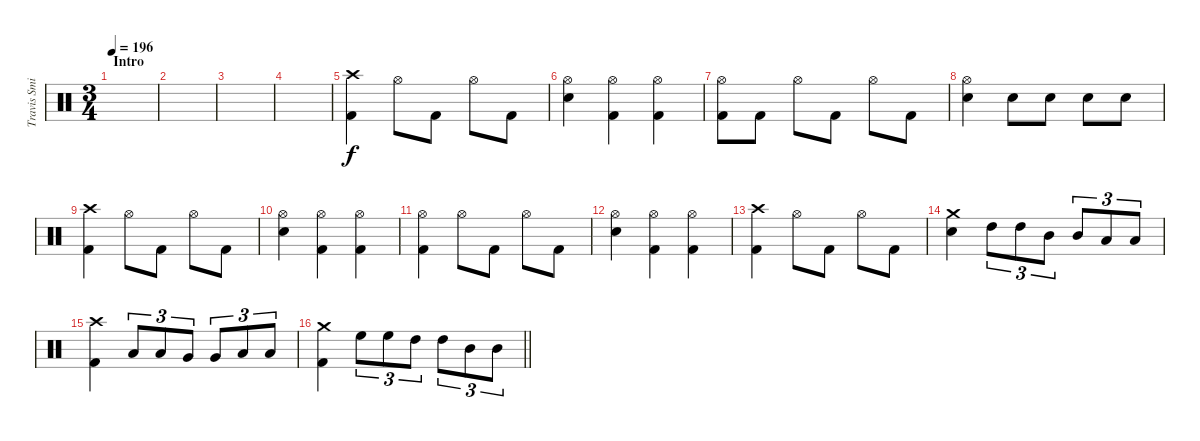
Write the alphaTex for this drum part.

\track ("Travis Smith" "Travis Smi") {instrument percussion}
\staff {score}
\articulation defaults
\ts (3 4)
\section ("" "Intro")
\tempo 196
\clef neutral
\ks c
|
|
|
|
("Crash high (hit)" "Kick (hit) 2").4 "Hi-Hat (open)".8 "Kick (hit) 2".8 "Hi-Hat (open)".8 "Kick (hit) 2".8 |
("Hi-Hat (open)" "Electric Snare (hit)").4 ("Hi-Hat (open)" "Kick (hit) 2").4 ("Hi-Hat (open)" "Kick (hit) 2").4 |
("Hi-Hat (open)" "Kick (hit) 2").8 "Kick (hit) 2".8 "Hi-Hat (open)".8 "Kick (hit) 2".8 "Hi-Hat (open)".8 "Kick (hit) 2".8 |
("Hi-Hat (open)" "Electric Snare (hit)").4 "Electric Snare (hit)".8 "Electric Snare (hit)".8 "Electric Snare (hit)".8 "Electric Snare (hit)".8 |
("Crash high (hit)" "Kick (hit) 2").4 "Hi-Hat (open)".8 "Kick (hit) 2".8 "Hi-Hat (open)".8 "Kick (hit) 2".8 |
("Hi-Hat (open)" "Electric Snare (hit)").4 ("Hi-Hat (open)" "Kick (hit) 2").4 ("Hi-Hat (open)" "Kick (hit) 2").4 |
("Hi-Hat (open)" "Kick (hit) 2").4 "Hi-Hat (open)".8 "Kick (hit) 2".8 "Hi-Hat (open)".8 "Kick (hit) 2".8 |
("Hi-Hat (open)" "Electric Snare (hit)").4 ("Hi-Hat (open)" "Kick (hit) 2").4 ("Hi-Hat (open)" "Kick (hit) 2").4 |
("Crash high (hit)" "Kick (hit) 2").4 "Hi-Hat (open)".8 "Kick (hit) 2".8 "Hi-Hat (open)".8 "Kick (hit) 2".8 |
("Crash medium (hit)" "Electric Snare (hit)").4 "High Tom (hit)".8{tu (3 2)} "High Tom (hit)".8{tu (3 2)} "Mid Tom (hit)".8{tu (3 2)} "Mid Tom (hit)".8{tu (3 2)} "Low Tom (hit)".8{tu (3 2)} "Low Tom (hit)".8{tu (3 2)} |
("Crash high (hit)" "Kick (hit) 2").4 "Low Tom (hit)".8{tu (3 2)} "Low Tom (hit)".8{tu (3 2)} "Very Low Tom (hit)".8{tu (3 2)} "Very Low Tom (hit)".8{tu (3 2)} "Low Floor Tom (hit)".8{tu (3 2)} "Low Floor Tom (hit)".8{tu (3 2)} |
\barLineRight lightlight
("Crash medium (hit)" "Kick (hit) 2").4 "High Floor Tom (hit)".8{tu (3 2)} "High Floor Tom (hit)".8{tu (3 2)} "High Tom (hit)".8{tu (3 2)} "High Tom (hit)".8{tu (3 2)} "Mid Tom (hit)".8{tu (3 2)} "Mid Tom (hit)".8{tu (3 2)}
